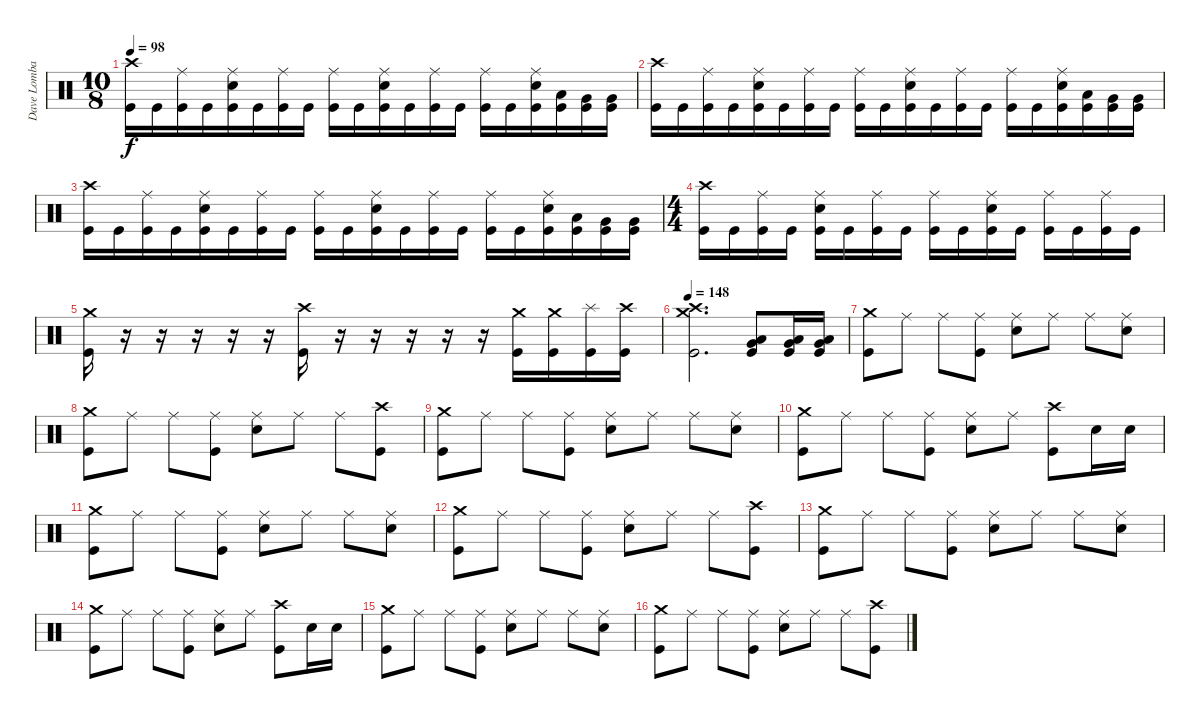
\track ("Dave Lombardo (Drum)" "Dave Lomba") {instrument percussion}
\staff {score}
\articulation defaults
\ts (10 8)
\tempo 98
\clef neutral
\ks c
("Crash high (hit)" "Kick (hit)").16{dy f} "Kick (hit)".16 ("Ride (middle)" "Kick (hit)").16 "Kick (hit)".16 ("Snare (hit) 2" "Ride (middle)" "Kick (hit)").16 "Kick (hit)".16 ("Ride (middle)" "Kick (hit)").16 "Kick (hit)".16 ("Ride (middle)" "Kick (hit)").16 "Kick (hit)".16 ("Snare (hit) 2" "Ride (middle)" "Kick (hit)").16 "Kick (hit)".16 ("Ride (middle)" "Kick (hit)").16 "Kick (hit)".16 ("Ride (middle)" "Kick (hit)").16 "Kick (hit)".16 ("Snare (hit) 2" "Ride (middle)" "Kick (hit)").16 ("Low Tom (hit)" "Kick (hit)").16 ("Very Low Tom (hit)" "Kick (hit)").16 ("Very Low Tom (hit)" "Kick (hit)").16 |
("Crash high (hit)" "Kick (hit)").16 "Kick (hit)".16 ("Ride (middle)" "Kick (hit)").16 "Kick (hit)".16 ("Snare (hit) 2" "Ride (middle)" "Kick (hit)").16 "Kick (hit)".16 ("Ride (middle)" "Kick (hit)").16 "Kick (hit)".16 ("Ride (middle)" "Kick (hit)").16 "Kick (hit)".16 ("Snare (hit) 2" "Ride (middle)" "Kick (hit)").16 "Kick (hit)".16 ("Ride (middle)" "Kick (hit)").16 "Kick (hit)".16 ("Ride (middle)" "Kick (hit)").16 "Kick (hit)".16 ("Snare (hit) 2" "Ride (middle)" "Kick (hit)").16 ("Low Tom (hit)" "Kick (hit)").16 ("Very Low Tom (hit)" "Kick (hit)").16 ("Very Low Tom (hit)" "Kick (hit)").16 |
("Crash high (hit)" "Kick (hit)").16 "Kick (hit)".16 ("Ride (middle)" "Kick (hit)").16 "Kick (hit)".16 ("Snare (hit) 2" "Ride (middle)" "Kick (hit)").16 "Kick (hit)".16 ("Ride (middle)" "Kick (hit)").16 "Kick (hit)".16 ("Ride (middle)" "Kick (hit)").16 "Kick (hit)".16 ("Snare (hit) 2" "Ride (middle)" "Kick (hit)").16 "Kick (hit)".16 ("Ride (middle)" "Kick (hit)").16 "Kick (hit)".16 ("Ride (middle)" "Kick (hit)").16 "Kick (hit)".16 ("Snare (hit) 2" "Ride (middle)" "Kick (hit)").16 ("Low Tom (hit)" "Kick (hit)").16 ("Very Low Tom (hit)" "Kick (hit)").16 ("Very Low Tom (hit)" "Kick (hit)").16 |
\ts (4 4)
("Crash high (hit)" "Kick (hit)").16 "Kick (hit)".16 ("Ride (middle)" "Kick (hit)").16 "Kick (hit)".16 ("Snare (hit) 2" "Ride (middle)" "Kick (hit)").16 "Kick (hit)".16 ("Ride (middle)" "Kick (hit)").16 "Kick (hit)".16 ("Ride (middle)" "Kick (hit)").16 "Kick (hit)".16 ("Snare (hit) 2" "Ride (middle)" "Kick (hit)").16 "Kick (hit)".16 ("Ride (middle)" "Kick (hit)").16 "Kick (hit)".16 ("Ride (middle)" "Kick (hit)").16 "Kick (hit)".16 |
("Kick (hit)" "Crash medium (hit)").16 r.16 r.16 r.16 r.16 r.16 ("Crash high (hit)" "Kick (hit)").16 r.16 r.16 r.16 r.16 r.16 ("Crash medium (hit)" "Kick (hit)").16 ("Crash medium (hit)" "Kick (hit)").16 ("Kick (hit)" "Splash (hit)").16 ("Crash high (hit)" "Kick (hit)").16 |
\tempo 148
("Crash high (hit)" "Crash medium (hit)" "Kick (hit)").2{d} ("Kick (hit)" "Low Floor Tom (hit)" "Very Low Tom (hit)").8 ("Kick (hit)" "Low Floor Tom (hit)" "Very Low Tom (hit)").16 ("Kick (hit)" "Low Floor Tom (hit)" "Very Low Tom (hit)").16 |
("Crash medium (hit)" "Kick (hit)").8 "Ride (middle)".8 "Ride (middle)".8 ("Kick (hit)" "Ride (middle)").8 ("Snare (hit) 2" "Ride (middle)").8 "Ride (middle)".8 "Ride (middle)".8 ("Snare (hit) 2" "Ride (middle)").8 |
("Crash medium (hit)" "Kick (hit)").8 "Ride (middle)".8 "Ride (middle)".8 ("Kick (hit)" "Ride (middle)").8 ("Snare (hit) 2" "Ride (middle)").8 "Ride (middle)".8 "Ride (middle)".8 ("Kick (hit)" "Crash high (hit)").8 |
("Crash medium (hit)" "Kick (hit)").8 "Ride (middle)".8 "Ride (middle)".8 ("Kick (hit)" "Ride (middle)").8 ("Snare (hit) 2" "Ride (middle)").8 "Ride (middle)".8 "Ride (middle)".8 ("Snare (hit) 2" "Ride (middle)").8 |
("Crash medium (hit)" "Kick (hit)").8 "Ride (middle)".8 "Ride (middle)".8 ("Kick (hit)" "Ride (middle)").8 ("Snare (hit) 2" "Ride (middle)").8 "Ride (middle)".8 ("Crash high (hit)" "Kick (hit)").8 "Snare (hit) 2".16 "Snare (hit) 2".16 |
("Crash medium (hit)" "Kick (hit)").8 "Ride (middle)".8 "Ride (middle)".8 ("Kick (hit)" "Ride (middle)").8 ("Snare (hit) 2" "Ride (middle)").8 "Ride (middle)".8 "Ride (middle)".8 ("Snare (hit) 2" "Ride (middle)").8 |
("Crash medium (hit)" "Kick (hit)").8 "Ride (middle)".8 "Ride (middle)".8 ("Kick (hit)" "Ride (middle)").8 ("Snare (hit) 2" "Ride (middle)").8 "Ride (middle)".8 "Ride (middle)".8 ("Kick (hit)" "Crash high (hit)").8 |
("Crash medium (hit)" "Kick (hit)").8 "Ride (middle)".8 "Ride (middle)".8 ("Kick (hit)" "Ride (middle)").8 ("Snare (hit) 2" "Ride (middle)").8 "Ride (middle)".8 "Ride (middle)".8 ("Snare (hit) 2" "Ride (middle)").8 |
("Crash medium (hit)" "Kick (hit)").8 "Ride (middle)".8 "Ride (middle)".8 ("Kick (hit)" "Ride (middle)").8 ("Snare (hit) 2" "Ride (middle)").8 "Ride (middle)".8 ("Crash high (hit)" "Kick (hit)").8 "Snare (hit) 2".16 "Snare (hit) 2".16 |
("Crash medium (hit)" "Kick (hit)").8 "Ride (middle)".8 "Ride (middle)".8 ("Kick (hit)" "Ride (middle)").8 ("Snare (hit) 2" "Ride (middle)").8 "Ride (middle)".8 "Ride (middle)".8 ("Snare (hit) 2" "Ride (middle)").8 |
("Crash medium (hit)" "Kick (hit)").8 "Ride (middle)".8 "Ride (middle)".8 ("Kick (hit)" "Ride (middle)").8 ("Snare (hit) 2" "Ride (middle)").8 "Ride (middle)".8 "Ride (middle)".8 ("Kick (hit)" "Crash high (hit)").8
